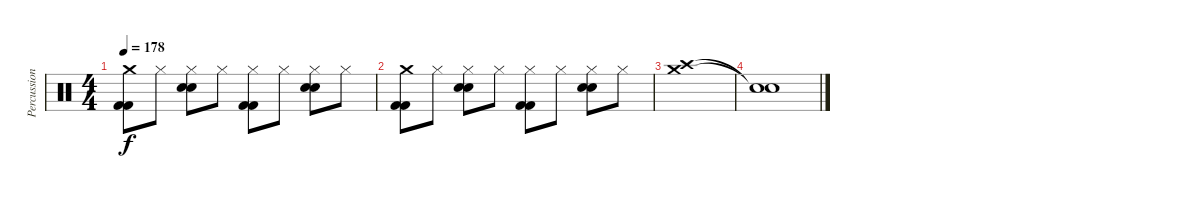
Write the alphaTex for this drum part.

\track ("Percussion" "Percussion") {instrument percussion}
\staff {score}
\articulation defaults
\ts (4 4)
\tempo 178
\clef neutral
\ks c
("Crash medium (hit)" "Kick (hit) 2" "Kick (hit) 2").8{dy f} "Hi-Hat (closed)".8 ("Hi-Hat (closed)" "Snare (hit) 2" "Snare (hit) 2").8 "Hi-Hat (closed)".8 ("Hi-Hat (closed)" "Kick (hit) 2" "Kick (hit) 2").8 "Hi-Hat (closed)".8 ("Hi-Hat (closed)" "Snare (hit) 2" "Snare (hit) 2").8 "Hi-Hat (closed)".8 |
("Crash medium (hit)" "Kick (hit) 2" "Kick (hit) 2").8 "Hi-Hat (closed)".8 ("Hi-Hat (closed)" "Snare (hit) 2" "Snare (hit) 2").8 "Hi-Hat (closed)".8 ("Hi-Hat (closed)" "Kick (hit) 2" "Kick (hit) 2").8 "Hi-Hat (closed)".8 ("Hi-Hat (closed)" "Snare (hit) 2" "Snare (hit) 2").8 "Hi-Hat (closed)".8 |
("Crash medium (hit)" "Crash high (hit)").1 |
("Snare (hit)"{t} "Snare (hit)"{t}).1
